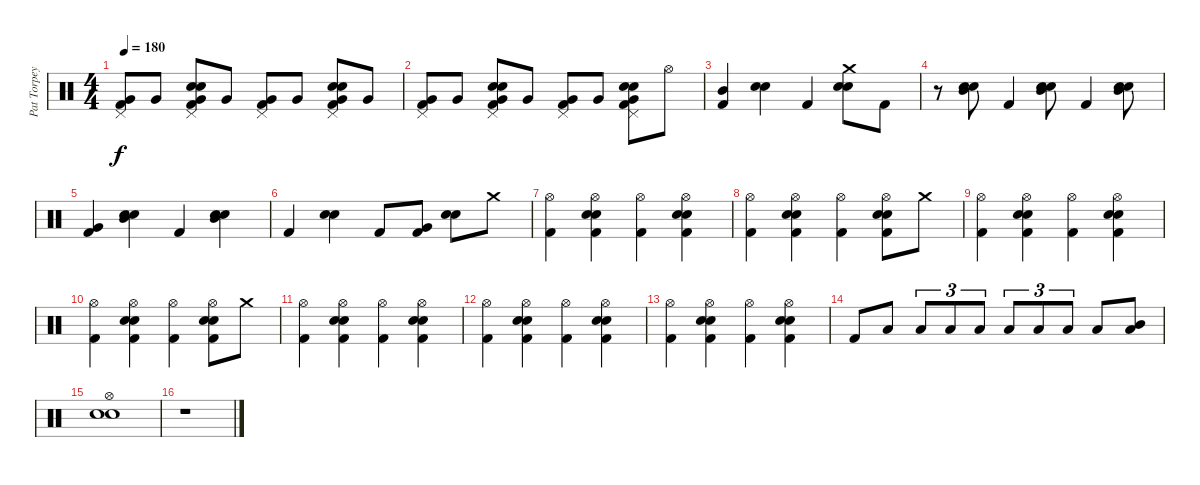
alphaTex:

\track ("Pat Torpey" "Pat Torpey") {instrument percussion}
\staff {score}
\articulation defaults
\ts (4 4)
\tempo 180
\clef neutral
\ks c
("Pedal Hi-Hat (hit)" "Very Low Tom (hit)" "Kick (hit) 2").8{dy f} "Very Low Tom (hit)".8 ("Pedal Hi-Hat (hit)" "Very Low Tom (hit)" "Snare (hit) 2" "Electric Snare (hit)" "Kick (hit) 2").8 "Very Low Tom (hit)".8 ("Pedal Hi-Hat (hit)" "Very Low Tom (hit)" "Kick (hit) 2").8 "Very Low Tom (hit)".8 ("Pedal Hi-Hat (hit)" "Very Low Tom (hit)" "Snare (hit) 2" "Electric Snare (hit)" "Kick (hit) 2").8 "Very Low Tom (hit)".8 |
("Pedal Hi-Hat (hit)" "Very Low Tom (hit)" "Kick (hit) 2").8 "Very Low Tom (hit)".8 ("Pedal Hi-Hat (hit)" "Very Low Tom (hit)" "Snare (hit) 2" "Electric Snare (hit)" "Kick (hit) 2").8 "Very Low Tom (hit)".8 ("Pedal Hi-Hat (hit)" "Very Low Tom (hit)" "Kick (hit) 2").8 "Very Low Tom (hit)".8 ("Pedal Hi-Hat (hit)" "Very Low Tom (hit)" "Snare (hit) 2" "Electric Snare (hit)" "Kick (hit) 2").8 "Hi-Hat (open)".8 |
("Mid Tom (hit)" "Kick (hit) 2").4 ("Snare (hit) 2" "Electric Snare (hit)").4 "Kick (hit) 2".4 ("Crash medium (hit)" "Snare (hit) 2" "Electric Snare (hit)").8 "Kick (hit) 2".8 |
r.8 ("Mid Tom (hit)" "Snare (hit) 2" "Electric Snare (hit)").8 "Kick (hit) 2".4 ("Mid Tom (hit)" "Snare (hit) 2" "Electric Snare (hit)").8 "Kick (hit) 2".4 ("Mid Tom (hit)" "Snare (hit) 2" "Electric Snare (hit)").8 |
("Very Low Tom (hit)" "Kick (hit) 2").4 ("Mid Tom (hit)" "Snare (hit) 2" "Electric Snare (hit)").4 "Kick (hit) 2".4 ("Mid Tom (hit)" "Snare (hit) 2" "Electric Snare (hit)").4 |
"Kick (hit) 2".4 ("Snare (hit) 2" "Electric Snare (hit)").4 "Kick (hit) 2".8 ("Very Low Tom (hit)" "Kick (hit) 2").8 ("Snare (hit) 2" "Electric Snare (hit)").8 "Crash medium (hit)".8 |
("Hi-Hat (open)" "Kick (hit) 2").4 ("Hi-Hat (open)" "Snare (hit) 2" "Electric Snare (hit)" "Kick (hit) 2").4 ("Hi-Hat (open)" "Kick (hit) 2").4 ("Hi-Hat (open)" "Snare (hit) 2" "Electric Snare (hit)" "Kick (hit) 2").4 |
("Hi-Hat (open)" "Kick (hit) 2").4 ("Hi-Hat (open)" "Snare (hit) 2" "Electric Snare (hit)" "Kick (hit) 2").4 ("Hi-Hat (open)" "Kick (hit) 2").4 ("Hi-Hat (open)" "Snare (hit) 2" "Electric Snare (hit)" "Kick (hit) 2").8 "Crash medium (hit)".8 |
("Hi-Hat (open)" "Kick (hit) 2").4 ("Hi-Hat (open)" "Snare (hit) 2" "Electric Snare (hit)" "Kick (hit) 2").4 ("Hi-Hat (open)" "Kick (hit) 2").4 ("Hi-Hat (open)" "Snare (hit) 2" "Electric Snare (hit)" "Kick (hit) 2").4 |
("Hi-Hat (open)" "Kick (hit) 2").4 ("Hi-Hat (open)" "Snare (hit) 2" "Electric Snare (hit)" "Kick (hit) 2").4 ("Hi-Hat (open)" "Kick (hit) 2").4 ("Hi-Hat (open)" "Snare (hit) 2" "Electric Snare (hit)" "Kick (hit) 2").8 "Crash medium (hit)".8 |
("Hi-Hat (open)" "Kick (hit) 2").4 ("Hi-Hat (open)" "Snare (hit) 2" "Electric Snare (hit)" "Kick (hit) 2").4 ("Hi-Hat (open)" "Kick (hit) 2").4 ("Hi-Hat (open)" "Snare (hit) 2" "Electric Snare (hit)" "Kick (hit) 2").4 |
("Hi-Hat (open)" "Kick (hit) 2").4 ("Hi-Hat (open)" "Snare (hit) 2" "Electric Snare (hit)" "Kick (hit) 2").4 ("Hi-Hat (open)" "Kick (hit) 2").4 ("Hi-Hat (open)" "Snare (hit) 2" "Electric Snare (hit)" "Kick (hit) 2").4 |
("Hi-Hat (open)" "Kick (hit) 2").4 ("Hi-Hat (open)" "Snare (hit) 2" "Electric Snare (hit)" "Kick (hit) 2").4 ("Hi-Hat (open)" "Kick (hit) 2").4 ("Hi-Hat (open)" "Snare (hit) 2" "Electric Snare (hit)" "Kick (hit) 2").4 |
"Kick (hit) 2".8 "Low Tom (hit)".8 "Low Tom (hit)".8{tu (3 2)} "Low Tom (hit)".8{tu (3 2)} "Low Tom (hit)".8{tu (3 2)} "Low Tom (hit)".8{tu (3 2)} "Low Tom (hit)".8{tu (3 2)} "Low Tom (hit)".8{tu (3 2)} "Low Tom (hit)".8 ("Mid Tom (hit)" "Low Tom (hit)").8 |
("Snare (hit) 2" "Electric Snare (hit)" "Hi-Hat (open)").1 |
r.1
